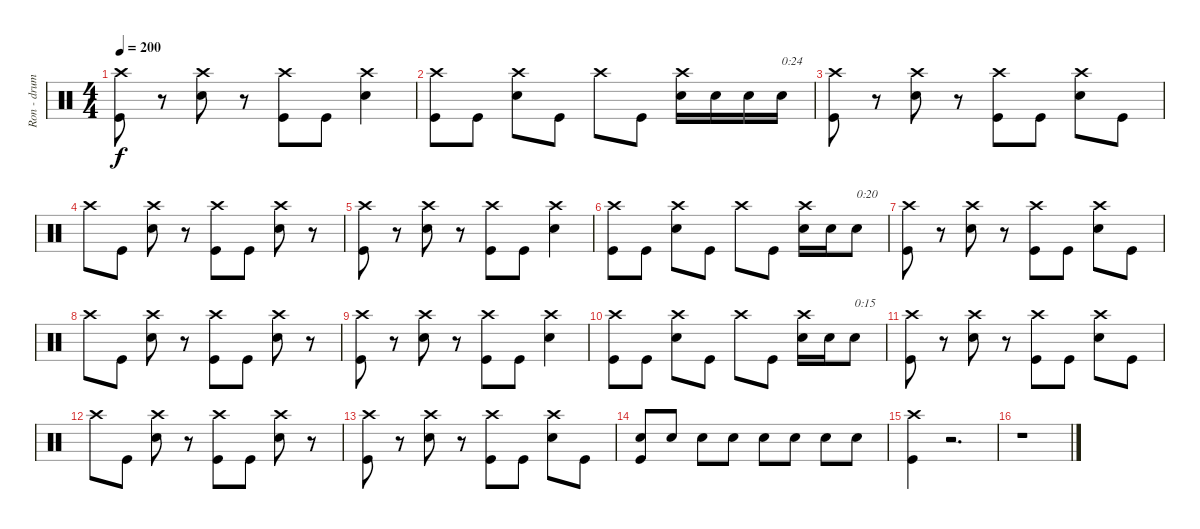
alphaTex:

\track ("Ron - drums" "Ron - drum") {instrument percussion}
\staff {score}
\articulation defaults
\ts (4 4)
\tempo 200
\clef neutral
\ks c
("Crash high (hit)" "Kick (hit)").8{dy f} r.8 ("Crash high (hit)" "Snare (hit) 2").8 r.8 ("Crash high (hit)" "Kick (hit)").8 "Kick (hit)".8 ("Crash high (hit)" "Snare (hit) 2").4 |
("Crash high (hit)" "Kick (hit)").8 "Kick (hit)".8 ("Crash high (hit)" "Snare (hit) 2").8 "Kick (hit)".8 "Crash high (hit)".8 "Kick (hit)".8 ("Crash high (hit)" "Snare (hit) 2").16 "Snare (hit) 2".16 "Snare (hit) 2".16 "Snare (hit) 2".16{txt "0:24"} |
("Crash high (hit)" "Kick (hit)").8 r.8 ("Crash high (hit)" "Snare (hit) 2").8 r.8 ("Crash high (hit)" "Kick (hit)").8 "Kick (hit)".8 ("Crash high (hit)" "Snare (hit) 2").8 "Kick (hit)".8 |
"Crash high (hit)".8 "Kick (hit)".8 ("Crash high (hit)" "Snare (hit) 2").8 r.8 ("Crash high (hit)" "Kick (hit)").8 "Kick (hit)".8 ("Crash high (hit)" "Snare (hit) 2").8 r.8 |
("Crash high (hit)" "Kick (hit)").8 r.8 ("Crash high (hit)" "Snare (hit) 2").8 r.8 ("Crash high (hit)" "Kick (hit)").8 "Kick (hit)".8 ("Crash high (hit)" "Snare (hit) 2").4 |
("Crash high (hit)" "Kick (hit)").8 "Kick (hit)".8 ("Crash high (hit)" "Snare (hit) 2").8 "Kick (hit)".8 "Crash high (hit)".8 "Kick (hit)".8 ("Crash high (hit)" "Snare (hit) 2").16 "Snare (hit) 2".16 "Snare (hit) 2".8{txt "0:20"} |
("Crash high (hit)" "Kick (hit)").8 r.8 ("Crash high (hit)" "Snare (hit) 2").8 r.8 ("Crash high (hit)" "Kick (hit)").8 "Kick (hit)".8 ("Crash high (hit)" "Snare (hit) 2").8 "Kick (hit)".8 |
"Crash high (hit)".8 "Kick (hit)".8 ("Crash high (hit)" "Snare (hit) 2").8 r.8 ("Crash high (hit)" "Kick (hit)").8 "Kick (hit)".8 ("Crash high (hit)" "Snare (hit) 2").8 r.8 |
("Crash high (hit)" "Kick (hit)").8 r.8 ("Crash high (hit)" "Snare (hit) 2").8 r.8 ("Crash high (hit)" "Kick (hit)").8 "Kick (hit)".8 ("Crash high (hit)" "Snare (hit) 2").4 |
("Crash high (hit)" "Kick (hit)").8 "Kick (hit)".8 ("Crash high (hit)" "Snare (hit) 2").8 "Kick (hit)".8 "Crash high (hit)".8 "Kick (hit)".8 ("Crash high (hit)" "Snare (hit) 2").16 "Snare (hit) 2".16 "Snare (hit) 2".8{txt "0:15"} |
("Crash high (hit)" "Kick (hit)").8 r.8 ("Crash high (hit)" "Snare (hit) 2").8 r.8 ("Crash high (hit)" "Kick (hit)").8 "Kick (hit)".8 ("Crash high (hit)" "Snare (hit) 2").8 "Kick (hit)".8 |
"Crash high (hit)".8 "Kick (hit)".8 ("Crash high (hit)" "Snare (hit) 2").8 r.8 ("Crash high (hit)" "Kick (hit)").8 "Kick (hit)".8 ("Crash high (hit)" "Snare (hit) 2").8 r.8 |
("Crash high (hit)" "Kick (hit)").8 r.8 ("Crash high (hit)" "Snare (hit) 2").8 r.8 ("Crash high (hit)" "Kick (hit)").8 "Kick (hit)".8 ("Crash high (hit)" "Snare (hit) 2").8 "Kick (hit)".8 |
("Snare (hit) 2" "Kick (hit)").8 "Snare (hit) 2".8 "Snare (hit) 2".8 "Snare (hit) 2".8 "Snare (hit) 2".8 "Snare (hit) 2".8 "Snare (hit) 2".8 "Snare (hit) 2".8 |
("Crash high (hit)" "Kick (hit)").4 r.2{d} |
r.1
